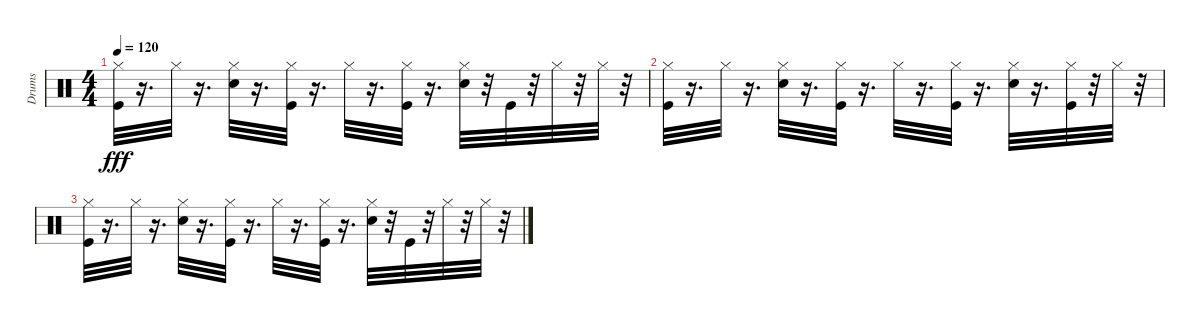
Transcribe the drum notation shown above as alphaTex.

\track ("Drums" "Drums") {solo instrument percussion}
\staff {score}
\articulation defaults
\ts (4 4)
\tempo 120
\clef neutral
\ks c
("Kick (hit)" "Hi-Hat (closed)").32{dy fff} r.16{d} "Hi-Hat (closed)".32 r.16{d} ("Snare (hit) 2" "Hi-Hat (closed)").32 r.16{d} ("Kick (hit)" "Hi-Hat (closed)").32 r.16{d} "Hi-Hat (closed)".32 r.16{d} ("Kick (hit)" "Hi-Hat (closed)").32 r.16{d} ("Snare (hit) 2" "Hi-Hat (closed)").32 r.32 "Kick (hit)".32 r.32 "Hi-Hat (closed)".32 r.32 "Hi-Hat (closed)".32 r.32 |
("Kick (hit)" "Hi-Hat (closed)").32 r.16{d} "Hi-Hat (closed)".32 r.16{d} ("Snare (hit) 2" "Hi-Hat (closed)").32 r.16{d} ("Kick (hit)" "Hi-Hat (closed)").32 r.16{d} "Hi-Hat (closed)".32 r.16{d} ("Kick (hit)" "Hi-Hat (closed)").32 r.16{d} ("Snare (hit) 2" "Hi-Hat (closed)").32 r.16{d} ("Kick (hit)" "Hi-Hat (closed)").32 r.32 "Hi-Hat (closed)".32 r.32 |
("Kick (hit)" "Hi-Hat (closed)").32 r.16{d} "Hi-Hat (closed)".32 r.16{d} ("Snare (hit) 2" "Hi-Hat (closed)").32 r.16{d} ("Kick (hit)" "Hi-Hat (closed)").32 r.16{d} "Hi-Hat (closed)".32 r.16{d} ("Kick (hit)" "Hi-Hat (closed)").32 r.16{d} ("Snare (hit) 2" "Hi-Hat (closed)").32 r.32 "Kick (hit)".32 r.32 "Hi-Hat (closed)".32 r.32 "Hi-Hat (closed)".32 r.32
